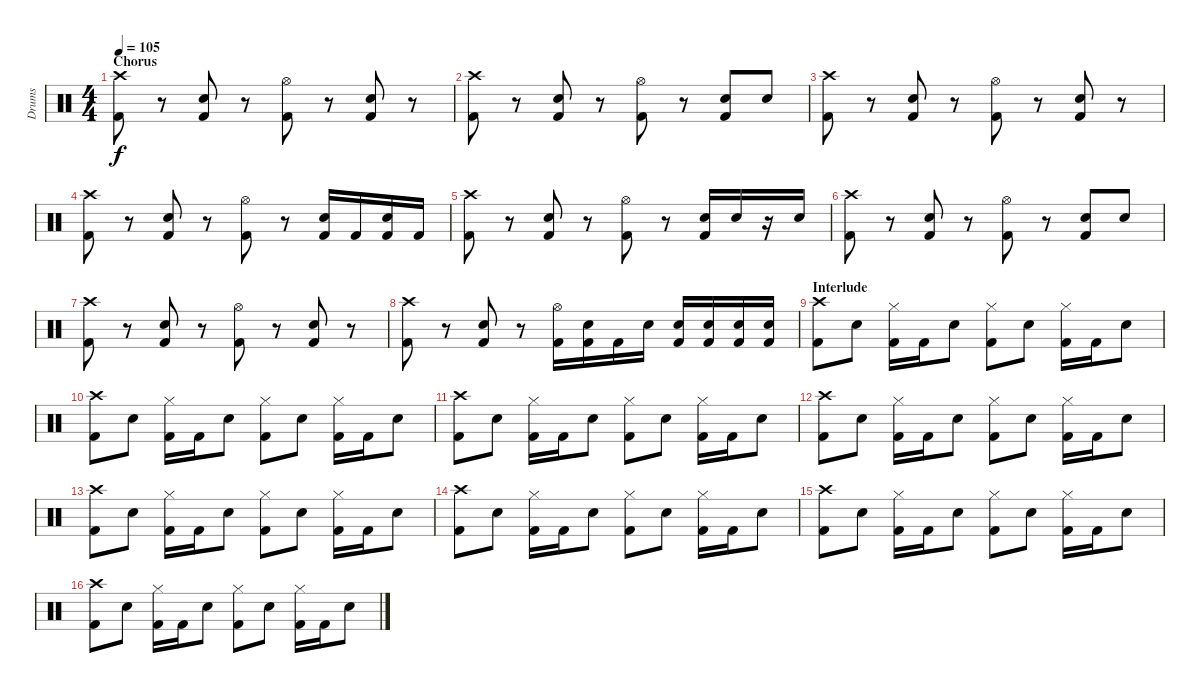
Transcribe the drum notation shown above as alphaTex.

\track ("Drums" "Drums") {instrument percussion}
\staff {score}
\articulation defaults
\ts (4 4)
\section ("" "Chorus")
\tempo 105
\clef neutral
\ks c
("Crash high (hit)" "Kick (hit) 2").8{dy f} r.8 ("Snare (hit) 2" "Kick (hit) 2").8 r.8 ("Hi-Hat (open)" "Kick (hit) 2").8 r.8 ("Snare (hit) 2" "Kick (hit) 2").8 r.8 |
("Crash high (hit)" "Kick (hit) 2").8 r.8 ("Snare (hit) 2" "Kick (hit) 2").8 r.8 ("Hi-Hat (open)" "Kick (hit) 2").8 r.8 ("Snare (hit) 2" "Kick (hit) 2").8 "Snare (hit) 2".8 |
("Crash high (hit)" "Kick (hit) 2").8 r.8 ("Snare (hit) 2" "Kick (hit) 2").8 r.8 ("Hi-Hat (open)" "Kick (hit) 2").8 r.8 ("Snare (hit) 2" "Kick (hit) 2").8 r.8 |
("Crash high (hit)" "Kick (hit) 2").8 r.8 ("Snare (hit) 2" "Kick (hit) 2").8 r.8 ("Hi-Hat (open)" "Kick (hit) 2").8 r.8 ("Snare (hit) 2" "Kick (hit) 2").16 "Kick (hit) 2".16 ("Snare (hit) 2" "Kick (hit) 2").16 "Kick (hit) 2".16 |
("Crash high (hit)" "Kick (hit) 2").8 r.8 ("Snare (hit) 2" "Kick (hit) 2").8 r.8 ("Hi-Hat (open)" "Kick (hit) 2").8 r.8 ("Snare (hit) 2" "Kick (hit) 2").16 "Snare (hit) 2".16 r.16 "Snare (hit) 2".16 |
("Crash high (hit)" "Kick (hit) 2").8 r.8 ("Snare (hit) 2" "Kick (hit) 2").8 r.8 ("Hi-Hat (open)" "Kick (hit) 2").8 r.8 ("Snare (hit) 2" "Kick (hit) 2").8 "Snare (hit) 2".8 |
("Crash high (hit)" "Kick (hit) 2").8 r.8 ("Snare (hit) 2" "Kick (hit) 2").8 r.8 ("Hi-Hat (open)" "Kick (hit) 2").8 r.8 ("Snare (hit) 2" "Kick (hit) 2").8 r.8 |
("Crash high (hit)" "Kick (hit) 2").8 r.8 ("Snare (hit) 2" "Kick (hit) 2").8 r.8 ("Hi-Hat (open)" "Kick (hit) 2").16 ("Snare (hit) 2" "Kick (hit) 2").16 "Kick (hit) 2".16 "Snare (hit) 2".16 ("Snare (hit) 2" "Kick (hit) 2").16 ("Snare (hit) 2" "Kick (hit) 2").16 ("Snare (hit) 2" "Kick (hit) 2").16 ("Snare (hit) 2" "Kick (hit) 2").16 |
\section ("" "Interlude")
("Crash high (hit)" "Kick (hit) 2").8 "Snare (hit) 2".8 ("Hi-Hat (closed)" "Kick (hit) 2").16 "Kick (hit) 2".16 "Snare (hit) 2".8 ("Hi-Hat (closed)" "Kick (hit) 2").8 "Snare (hit) 2".8 ("Hi-Hat (closed)" "Kick (hit) 2").16 "Kick (hit) 2".16 "Snare (hit) 2".8 |
("Crash high (hit)" "Kick (hit) 2").8 "Snare (hit) 2".8 ("Hi-Hat (closed)" "Kick (hit) 2").16 "Kick (hit) 2".16 "Snare (hit) 2".8 ("Hi-Hat (closed)" "Kick (hit) 2").8 "Snare (hit) 2".8 ("Hi-Hat (closed)" "Kick (hit) 2").16 "Kick (hit) 2".16 "Snare (hit) 2".8 |
("Crash high (hit)" "Kick (hit) 2").8 "Snare (hit) 2".8 ("Hi-Hat (closed)" "Kick (hit) 2").16 "Kick (hit) 2".16 "Snare (hit) 2".8 ("Hi-Hat (closed)" "Kick (hit) 2").8 "Snare (hit) 2".8 ("Hi-Hat (closed)" "Kick (hit) 2").16 "Kick (hit) 2".16 "Snare (hit) 2".8 |
("Crash high (hit)" "Kick (hit) 2").8 "Snare (hit) 2".8 ("Hi-Hat (closed)" "Kick (hit) 2").16 "Kick (hit) 2".16 "Snare (hit) 2".8 ("Hi-Hat (closed)" "Kick (hit) 2").8 "Snare (hit) 2".8 ("Hi-Hat (closed)" "Kick (hit) 2").16 "Kick (hit) 2".16 "Snare (hit) 2".8 |
("Crash high (hit)" "Kick (hit) 2").8 "Snare (hit) 2".8 ("Hi-Hat (closed)" "Kick (hit) 2").16 "Kick (hit) 2".16 "Snare (hit) 2".8 ("Hi-Hat (closed)" "Kick (hit) 2").8 "Snare (hit) 2".8 ("Hi-Hat (closed)" "Kick (hit) 2").16 "Kick (hit) 2".16 "Snare (hit) 2".8 |
("Crash high (hit)" "Kick (hit) 2").8 "Snare (hit) 2".8 ("Hi-Hat (closed)" "Kick (hit) 2").16 "Kick (hit) 2".16 "Snare (hit) 2".8 ("Hi-Hat (closed)" "Kick (hit) 2").8 "Snare (hit) 2".8 ("Hi-Hat (closed)" "Kick (hit) 2").16 "Kick (hit) 2".16 "Snare (hit) 2".8 |
("Crash high (hit)" "Kick (hit) 2").8 "Snare (hit) 2".8 ("Hi-Hat (closed)" "Kick (hit) 2").16 "Kick (hit) 2".16 "Snare (hit) 2".8 ("Hi-Hat (closed)" "Kick (hit) 2").8 "Snare (hit) 2".8 ("Hi-Hat (closed)" "Kick (hit) 2").16 "Kick (hit) 2".16 "Snare (hit) 2".8 |
("Crash high (hit)" "Kick (hit) 2").8 "Snare (hit) 2".8 ("Hi-Hat (closed)" "Kick (hit) 2").16 "Kick (hit) 2".16 "Snare (hit) 2".8 ("Hi-Hat (closed)" "Kick (hit) 2").8 "Snare (hit) 2".8 ("Hi-Hat (closed)" "Kick (hit) 2").16 "Kick (hit) 2".16 "Snare (hit) 2".8
